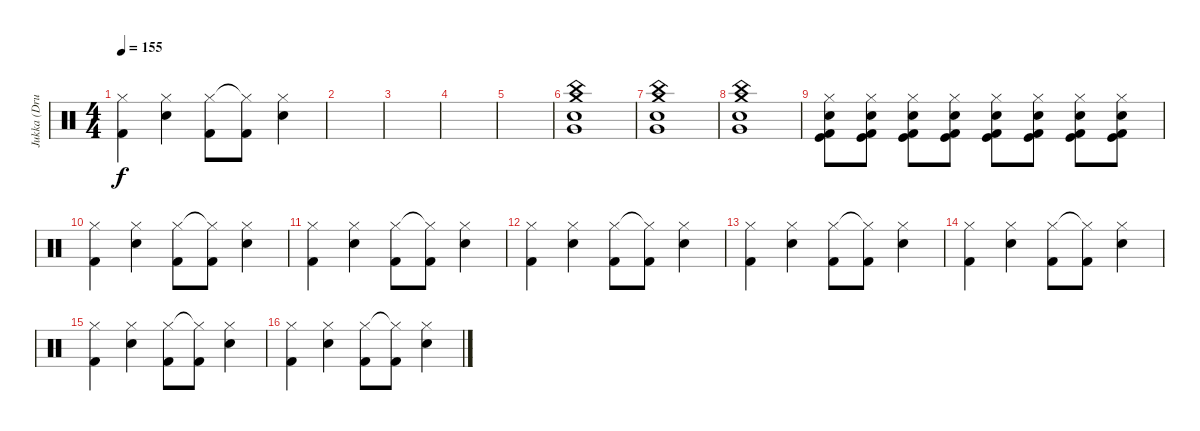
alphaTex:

\track ("Jukka (Drums)" "Jukka (Dru") {instrument percussion}
\staff {score}
\articulation defaults
\ts (4 4)
\tempo 155
\clef neutral
\ks c
("Hi-Hat (closed)" "Kick (hit) 2").4{dy f} ("Hi-Hat (closed)" "Snare (hit) 2").4 ("Hi-Hat (closed)" "Kick (hit) 2").8 ("Hi-Hat (closed)"{t} "Kick (hit) 2").8 ("Hi-Hat (closed)" "Snare (hit) 2").4 |
|
|
|
|
("Crash medium (hit)" "Snare (hit) 2" "China (hit)" "Very Low Tom (hit)").1 |
("Crash medium (hit)" "Snare (hit) 2" "China (hit)" "Very Low Tom (hit)").1 |
("Crash medium (hit)" "Snare (hit) 2" "China (hit)" "Very Low Tom (hit)").1 |
("Hi-Hat (closed)" "Snare (hit) 2" "Kick (hit)" "Kick (hit) 2").8 ("Hi-Hat (closed)" "Snare (hit) 2" "Kick (hit)" "Kick (hit) 2").8 ("Hi-Hat (closed)" "Snare (hit) 2" "Kick (hit)" "Kick (hit) 2").8 ("Hi-Hat (closed)" "Snare (hit) 2" "Kick (hit)" "Kick (hit) 2").8 ("Hi-Hat (closed)" "Snare (hit) 2" "Kick (hit)" "Kick (hit) 2").8 ("Hi-Hat (closed)" "Snare (hit) 2" "Kick (hit)" "Kick (hit) 2").8 ("Hi-Hat (closed)" "Snare (hit) 2" "Kick (hit)" "Kick (hit) 2").8 ("Hi-Hat (closed)" "Snare (hit) 2" "Kick (hit)" "Kick (hit) 2").8 |
("Hi-Hat (closed)" "Kick (hit) 2").4 ("Hi-Hat (closed)" "Snare (hit) 2").4 ("Hi-Hat (closed)" "Kick (hit) 2").8 ("Hi-Hat (closed)"{t} "Kick (hit) 2").8 ("Hi-Hat (closed)" "Snare (hit) 2").4 |
("Hi-Hat (closed)" "Kick (hit) 2").4 ("Hi-Hat (closed)" "Snare (hit) 2").4 ("Hi-Hat (closed)" "Kick (hit) 2").8 ("Hi-Hat (closed)"{t} "Kick (hit) 2").8 ("Hi-Hat (closed)" "Snare (hit) 2").4 |
("Hi-Hat (closed)" "Kick (hit) 2").4 ("Hi-Hat (closed)" "Snare (hit) 2").4 ("Hi-Hat (closed)" "Kick (hit) 2").8 ("Hi-Hat (closed)"{t} "Kick (hit) 2").8 ("Hi-Hat (closed)" "Snare (hit) 2").4 |
("Hi-Hat (closed)" "Kick (hit) 2").4 ("Hi-Hat (closed)" "Snare (hit) 2").4 ("Hi-Hat (closed)" "Kick (hit) 2").8 ("Hi-Hat (closed)"{t} "Kick (hit) 2").8 ("Hi-Hat (closed)" "Snare (hit) 2").4 |
("Hi-Hat (closed)" "Kick (hit) 2").4 ("Hi-Hat (closed)" "Snare (hit) 2").4 ("Hi-Hat (closed)" "Kick (hit) 2").8 ("Hi-Hat (closed)"{t} "Kick (hit) 2").8 ("Hi-Hat (closed)" "Snare (hit) 2").4 |
("Hi-Hat (closed)" "Kick (hit) 2").4 ("Hi-Hat (closed)" "Snare (hit) 2").4 ("Hi-Hat (closed)" "Kick (hit) 2").8 ("Hi-Hat (closed)"{t} "Kick (hit) 2").8 ("Hi-Hat (closed)" "Snare (hit) 2").4 |
("Hi-Hat (closed)" "Kick (hit) 2").4 ("Hi-Hat (closed)" "Snare (hit) 2").4 ("Hi-Hat (closed)" "Kick (hit) 2").8 ("Hi-Hat (closed)"{t} "Kick (hit) 2").8 ("Hi-Hat (closed)" "Snare (hit) 2").4
